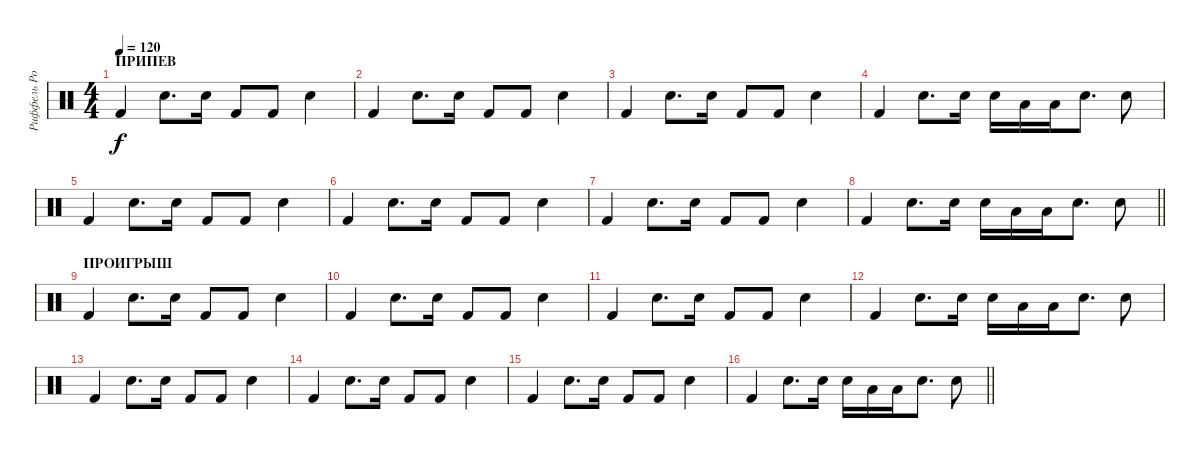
\track ("Риффель Роман(главные)" "Риффель Ро") {instrument percussion}
\staff {score}
\articulation defaults
\ts (4 4)
\section ("" "ПРИПЕВ")
\tempo 120
\clef neutral
\ks c "Kick (hit) 2".4{dy f} "Electric Snare (hit)".8{d} "Electric Snare (hit)".16 "Kick (hit) 2".8 "Kick (hit) 2".8 "Electric Snare (hit)".4
|
"Kick (hit) 2".4 "Electric Snare (hit)".8{d} "Electric Snare (hit)".16 "Kick (hit) 2".8 "Kick (hit) 2".8 "Electric Snare (hit)".4 |
"Kick (hit) 2".4 "Electric Snare (hit)".8{d} "Electric Snare (hit)".16 "Kick (hit) 2".8 "Kick (hit) 2".8 "Electric Snare (hit)".4 |
"Kick (hit) 2".4 "Electric Snare (hit)".8{d} "Electric Snare (hit)".16 "Electric Snare (hit)".16 "Low Tom (hit)".16 "Low Tom (hit)".16 "Electric Snare (hit)".8{d} "Electric Snare (hit)".8 |
"Kick (hit) 2".4 "Electric Snare (hit)".8{d} "Electric Snare (hit)".16 "Kick (hit) 2".8 "Kick (hit) 2".8 "Electric Snare (hit)".4 |
"Kick (hit) 2".4 "Electric Snare (hit)".8{d} "Electric Snare (hit)".16 "Kick (hit) 2".8 "Kick (hit) 2".8 "Electric Snare (hit)".4 |
"Kick (hit) 2".4 "Electric Snare (hit)".8{d} "Electric Snare (hit)".16 "Kick (hit) 2".8 "Kick (hit) 2".8 "Electric Snare (hit)".4 |
\barLineRight lightlight "Kick (hit) 2".4 "Electric Snare (hit)".8{d} "Electric Snare (hit)".16 "Electric Snare (hit)".16 "Low Tom (hit)".16 "Low Tom (hit)".16 "Electric Snare (hit)".8{d} "Electric Snare (hit)".8
|
\section ("" "ПРОИГРЫШ")
"Kick (hit) 2".4 "Electric Snare (hit)".8{d} "Electric Snare (hit)".16 "Kick (hit) 2".8 "Kick (hit) 2".8 "Electric Snare (hit)".4 |
"Kick (hit) 2".4 "Electric Snare (hit)".8{d} "Electric Snare (hit)".16 "Kick (hit) 2".8 "Kick (hit) 2".8 "Electric Snare (hit)".4 |
"Kick (hit) 2".4 "Electric Snare (hit)".8{d} "Electric Snare (hit)".16 "Kick (hit) 2".8 "Kick (hit) 2".8 "Electric Snare (hit)".4 |
"Kick (hit) 2".4 "Electric Snare (hit)".8{d} "Electric Snare (hit)".16 "Electric Snare (hit)".16 "Low Tom (hit)".16 "Low Tom (hit)".16 "Electric Snare (hit)".8{d} "Electric Snare (hit)".8 |
"Kick (hit) 2".4 "Electric Snare (hit)".8{d} "Electric Snare (hit)".16 "Kick (hit) 2".8 "Kick (hit) 2".8 "Electric Snare (hit)".4 |
"Kick (hit) 2".4 "Electric Snare (hit)".8{d} "Electric Snare (hit)".16 "Kick (hit) 2".8 "Kick (hit) 2".8 "Electric Snare (hit)".4 |
"Kick (hit) 2".4 "Electric Snare (hit)".8{d} "Electric Snare (hit)".16 "Kick (hit) 2".8 "Kick (hit) 2".8 "Electric Snare (hit)".4 |
\barLineRight lightlight "Kick (hit) 2".4 "Electric Snare (hit)".8{d} "Electric Snare (hit)".16 "Electric Snare (hit)".16 "Low Tom (hit)".16 "Low Tom (hit)".16 "Electric Snare (hit)".8{d} "Electric Snare (hit)".8
